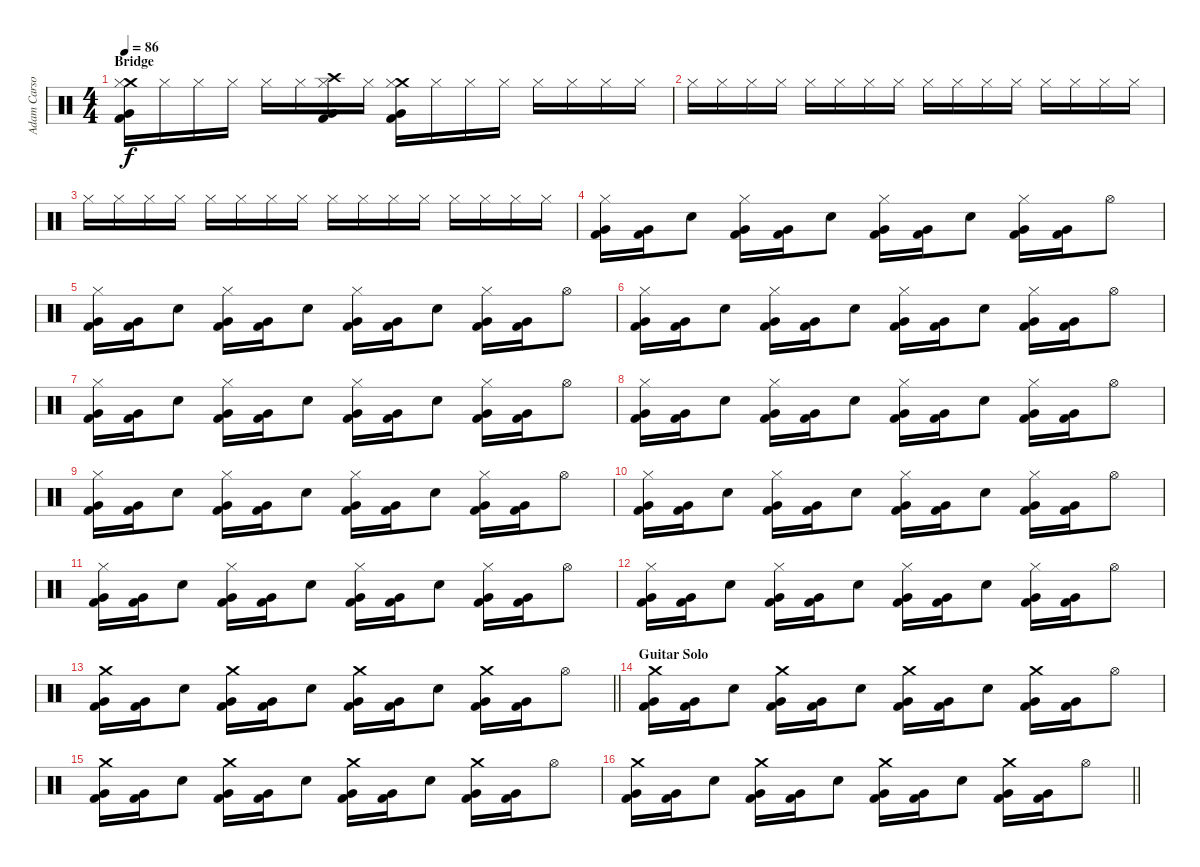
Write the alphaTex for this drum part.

\track ("Adam Carson" "Adam Carso") {instrument percussion}
\staff {score}
\articulation defaults
\ts (4 4)
\section ("" "Bridge")
\tempo 86
\clef neutral
\ks c
("Crash medium (hit)" "Hi-Hat (closed)" "Very Low Tom (hit)" "Kick (hit) 2").16{dy f} "Hi-Hat (closed)".16 "Hi-Hat (closed)".16 "Hi-Hat (closed)".16 "Hi-Hat (closed)".16 "Hi-Hat (closed)".16 ("Crash high (hit)" "Hi-Hat (closed)" "Very Low Tom (hit)" "Kick (hit) 2").16 "Hi-Hat (closed)".16 ("Crash medium (hit)" "Hi-Hat (closed)" "Very Low Tom (hit)" "Kick (hit) 2").16 "Hi-Hat (closed)".16 "Hi-Hat (closed)".16 "Hi-Hat (closed)".16 "Hi-Hat (closed)".16 "Hi-Hat (closed)".16 "Hi-Hat (closed)".16 "Hi-Hat (closed)".16 |
"Hi-Hat (closed)".16 "Hi-Hat (closed)".16 "Hi-Hat (closed)".16 "Hi-Hat (closed)".16 "Hi-Hat (closed)".16 "Hi-Hat (closed)".16 "Hi-Hat (closed)".16 "Hi-Hat (closed)".16 "Hi-Hat (closed)".16 "Hi-Hat (closed)".16 "Hi-Hat (closed)".16 "Hi-Hat (closed)".16 "Hi-Hat (closed)".16 "Hi-Hat (closed)".16 "Hi-Hat (closed)".16 "Hi-Hat (closed)".16 |
"Hi-Hat (closed)".16 "Hi-Hat (closed)".16 "Hi-Hat (closed)".16 "Hi-Hat (closed)".16 "Hi-Hat (closed)".16 "Hi-Hat (closed)".16 "Hi-Hat (closed)".16 "Hi-Hat (closed)".16 "Hi-Hat (closed)".16 "Hi-Hat (closed)".16 "Hi-Hat (closed)".16 "Hi-Hat (closed)".16 "Hi-Hat (closed)".16 "Hi-Hat (closed)".16 "Hi-Hat (closed)".16 "Hi-Hat (closed)".16 |
("Hi-Hat (closed)" "Very Low Tom (hit)" "Kick (hit) 2").16 ("Very Low Tom (hit)" "Kick (hit) 2").16 "Snare (hit) 2".8 ("Hi-Hat (closed)" "Very Low Tom (hit)" "Kick (hit) 2").16 ("Very Low Tom (hit)" "Kick (hit) 2").16 "Snare (hit) 2".8 ("Hi-Hat (closed)" "Very Low Tom (hit)" "Kick (hit) 2").16 ("Very Low Tom (hit)" "Kick (hit) 2").16 "Snare (hit) 2".8 ("Hi-Hat (closed)" "Very Low Tom (hit)" "Kick (hit) 2").16 ("Very Low Tom (hit)" "Kick (hit) 2").16 "Hi-Hat (open)".8 |
("Hi-Hat (closed)" "Very Low Tom (hit)" "Kick (hit) 2").16 ("Very Low Tom (hit)" "Kick (hit) 2").16 "Snare (hit) 2".8 ("Hi-Hat (closed)" "Very Low Tom (hit)" "Kick (hit) 2").16 ("Very Low Tom (hit)" "Kick (hit) 2").16 "Snare (hit) 2".8 ("Hi-Hat (closed)" "Very Low Tom (hit)" "Kick (hit) 2").16 ("Very Low Tom (hit)" "Kick (hit) 2").16 "Snare (hit) 2".8 ("Hi-Hat (closed)" "Very Low Tom (hit)" "Kick (hit) 2").16 ("Very Low Tom (hit)" "Kick (hit) 2").16 "Hi-Hat (open)".8 |
("Hi-Hat (closed)" "Very Low Tom (hit)" "Kick (hit) 2").16 ("Very Low Tom (hit)" "Kick (hit) 2").16 "Snare (hit) 2".8 ("Hi-Hat (closed)" "Very Low Tom (hit)" "Kick (hit) 2").16 ("Very Low Tom (hit)" "Kick (hit) 2").16 "Snare (hit) 2".8 ("Hi-Hat (closed)" "Very Low Tom (hit)" "Kick (hit) 2").16 ("Very Low Tom (hit)" "Kick (hit) 2").16 "Snare (hit) 2".8 ("Hi-Hat (closed)" "Very Low Tom (hit)" "Kick (hit) 2").16 ("Very Low Tom (hit)" "Kick (hit) 2").16 "Hi-Hat (open)".8 |
("Hi-Hat (closed)" "Very Low Tom (hit)" "Kick (hit) 2").16 ("Very Low Tom (hit)" "Kick (hit) 2").16 "Snare (hit) 2".8 ("Hi-Hat (closed)" "Very Low Tom (hit)" "Kick (hit) 2").16 ("Very Low Tom (hit)" "Kick (hit) 2").16 "Snare (hit) 2".8 ("Hi-Hat (closed)" "Very Low Tom (hit)" "Kick (hit) 2").16 ("Very Low Tom (hit)" "Kick (hit) 2").16 "Snare (hit) 2".8 ("Hi-Hat (closed)" "Very Low Tom (hit)" "Kick (hit) 2").16 ("Very Low Tom (hit)" "Kick (hit) 2").16 "Hi-Hat (open)".8 |
("Hi-Hat (closed)" "Very Low Tom (hit)" "Kick (hit) 2").16 ("Very Low Tom (hit)" "Kick (hit) 2").16 "Snare (hit) 2".8 ("Hi-Hat (closed)" "Very Low Tom (hit)" "Kick (hit) 2").16 ("Very Low Tom (hit)" "Kick (hit) 2").16 "Snare (hit) 2".8 ("Hi-Hat (closed)" "Very Low Tom (hit)" "Kick (hit) 2").16 ("Very Low Tom (hit)" "Kick (hit) 2").16 "Snare (hit) 2".8 ("Hi-Hat (closed)" "Very Low Tom (hit)" "Kick (hit) 2").16 ("Very Low Tom (hit)" "Kick (hit) 2").16 "Hi-Hat (open)".8 |
("Hi-Hat (closed)" "Very Low Tom (hit)" "Kick (hit) 2").16 ("Very Low Tom (hit)" "Kick (hit) 2").16 "Snare (hit) 2".8 ("Hi-Hat (closed)" "Very Low Tom (hit)" "Kick (hit) 2").16 ("Very Low Tom (hit)" "Kick (hit) 2").16 "Snare (hit) 2".8 ("Hi-Hat (closed)" "Very Low Tom (hit)" "Kick (hit) 2").16 ("Very Low Tom (hit)" "Kick (hit) 2").16 "Snare (hit) 2".8 ("Hi-Hat (closed)" "Very Low Tom (hit)" "Kick (hit) 2").16 ("Very Low Tom (hit)" "Kick (hit) 2").16 "Hi-Hat (open)".8 |
("Hi-Hat (closed)" "Very Low Tom (hit)" "Kick (hit) 2").16 ("Very Low Tom (hit)" "Kick (hit) 2").16 "Snare (hit) 2".8 ("Hi-Hat (closed)" "Very Low Tom (hit)" "Kick (hit) 2").16 ("Very Low Tom (hit)" "Kick (hit) 2").16 "Snare (hit) 2".8 ("Hi-Hat (closed)" "Very Low Tom (hit)" "Kick (hit) 2").16 ("Very Low Tom (hit)" "Kick (hit) 2").16 "Snare (hit) 2".8 ("Hi-Hat (closed)" "Very Low Tom (hit)" "Kick (hit) 2").16 ("Very Low Tom (hit)" "Kick (hit) 2").16 "Hi-Hat (open)".8 |
("Hi-Hat (closed)" "Very Low Tom (hit)" "Kick (hit) 2").16 ("Very Low Tom (hit)" "Kick (hit) 2").16 "Snare (hit) 2".8 ("Hi-Hat (closed)" "Very Low Tom (hit)" "Kick (hit) 2").16 ("Very Low Tom (hit)" "Kick (hit) 2").16 "Snare (hit) 2".8 ("Hi-Hat (closed)" "Very Low Tom (hit)" "Kick (hit) 2").16 ("Very Low Tom (hit)" "Kick (hit) 2").16 "Snare (hit) 2".8 ("Hi-Hat (closed)" "Very Low Tom (hit)" "Kick (hit) 2").16 ("Very Low Tom (hit)" "Kick (hit) 2").16 "Hi-Hat (open)".8 |
("Hi-Hat (closed)" "Very Low Tom (hit)" "Kick (hit) 2").16 ("Very Low Tom (hit)" "Kick (hit) 2").16 "Snare (hit) 2".8 ("Hi-Hat (closed)" "Very Low Tom (hit)" "Kick (hit) 2").16 ("Very Low Tom (hit)" "Kick (hit) 2").16 "Snare (hit) 2".8 ("Hi-Hat (closed)" "Very Low Tom (hit)" "Kick (hit) 2").16 ("Very Low Tom (hit)" "Kick (hit) 2").16 "Snare (hit) 2".8 ("Hi-Hat (closed)" "Very Low Tom (hit)" "Kick (hit) 2").16 ("Very Low Tom (hit)" "Kick (hit) 2").16 "Hi-Hat (open)".8 |
\barLineRight lightlight
("Crash medium (hit)" "Very Low Tom (hit)" "Kick (hit) 2").16 ("Very Low Tom (hit)" "Kick (hit) 2").16 "Snare (hit) 2".8 ("Crash medium (hit)" "Very Low Tom (hit)" "Kick (hit) 2").16 ("Very Low Tom (hit)" "Kick (hit) 2").16 "Snare (hit) 2".8 ("Crash medium (hit)" "Very Low Tom (hit)" "Kick (hit) 2").16 ("Very Low Tom (hit)" "Kick (hit) 2").16 "Snare (hit) 2".8 ("Crash medium (hit)" "Very Low Tom (hit)" "Kick (hit) 2").16 ("Very Low Tom (hit)" "Kick (hit) 2").16 "Hi-Hat (open)".8 |
\section ("" "Guitar Solo")
("Crash medium (hit)" "Very Low Tom (hit)" "Kick (hit) 2").16 ("Very Low Tom (hit)" "Kick (hit) 2").16 "Snare (hit) 2".8 ("Crash medium (hit)" "Very Low Tom (hit)" "Kick (hit) 2").16 ("Very Low Tom (hit)" "Kick (hit) 2").16 "Snare (hit) 2".8 ("Crash medium (hit)" "Very Low Tom (hit)" "Kick (hit) 2").16 ("Very Low Tom (hit)" "Kick (hit) 2").16 "Snare (hit) 2".8 ("Crash medium (hit)" "Very Low Tom (hit)" "Kick (hit) 2").16 ("Very Low Tom (hit)" "Kick (hit) 2").16 "Hi-Hat (open)".8 |
("Crash medium (hit)" "Very Low Tom (hit)" "Kick (hit) 2").16 ("Very Low Tom (hit)" "Kick (hit) 2").16 "Snare (hit) 2".8 ("Crash medium (hit)" "Very Low Tom (hit)" "Kick (hit) 2").16 ("Very Low Tom (hit)" "Kick (hit) 2").16 "Snare (hit) 2".8 ("Crash medium (hit)" "Very Low Tom (hit)" "Kick (hit) 2").16 ("Very Low Tom (hit)" "Kick (hit) 2").16 "Snare (hit) 2".8 ("Crash medium (hit)" "Very Low Tom (hit)" "Kick (hit) 2").16 ("Very Low Tom (hit)" "Kick (hit) 2").16 "Hi-Hat (open)".8 |
\barLineRight lightlight
("Crash medium (hit)" "Very Low Tom (hit)" "Kick (hit) 2").16 ("Very Low Tom (hit)" "Kick (hit) 2").16 "Snare (hit) 2".8 ("Crash medium (hit)" "Very Low Tom (hit)" "Kick (hit) 2").16 ("Very Low Tom (hit)" "Kick (hit) 2").16 "Snare (hit) 2".8 ("Crash medium (hit)" "Very Low Tom (hit)" "Kick (hit) 2").16 ("Very Low Tom (hit)" "Kick (hit) 2").16 "Snare (hit) 2".8 ("Crash medium (hit)" "Very Low Tom (hit)" "Kick (hit) 2").16 ("Very Low Tom (hit)" "Kick (hit) 2").16 "Hi-Hat (open)".8
